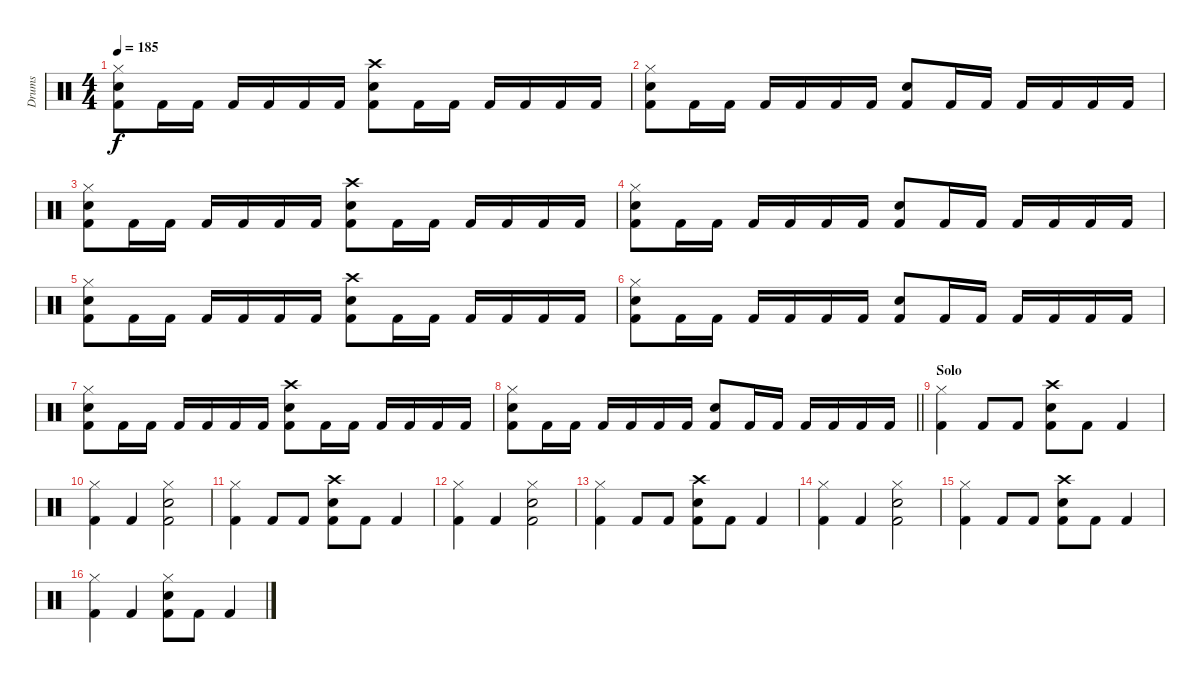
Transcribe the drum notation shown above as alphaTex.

\track ("Drums" "Drums") {instrument percussion}
\staff {score}
\articulation defaults
\ts (4 4)
\tempo 185
\clef neutral
\ks c
("Hi-Hat (closed)" "Electric Snare (hit)" "Kick (hit) 2").8{dy f} "Kick (hit) 2".16 "Kick (hit) 2".16 "Kick (hit) 2".16 "Kick (hit) 2".16 "Kick (hit) 2".16 "Kick (hit) 2".16 ("Crash high (hit)" "Electric Snare (hit)" "Kick (hit) 2").8 "Kick (hit) 2".16 "Kick (hit) 2".16 "Kick (hit) 2".16 "Kick (hit) 2".16 "Kick (hit) 2".16 "Kick (hit) 2".16 |
("Hi-Hat (closed)" "Electric Snare (hit)" "Kick (hit) 2").8 "Kick (hit) 2".16 "Kick (hit) 2".16 "Kick (hit) 2".16 "Kick (hit) 2".16 "Kick (hit) 2".16 "Kick (hit) 2".16 ("Electric Snare (hit)" "Kick (hit) 2").8 "Kick (hit) 2".16 "Kick (hit) 2".16 "Kick (hit) 2".16 "Kick (hit) 2".16 "Kick (hit) 2".16 "Kick (hit) 2".16 |
("Hi-Hat (closed)" "Electric Snare (hit)" "Kick (hit) 2").8 "Kick (hit) 2".16 "Kick (hit) 2".16 "Kick (hit) 2".16 "Kick (hit) 2".16 "Kick (hit) 2".16 "Kick (hit) 2".16 ("Crash high (hit)" "Electric Snare (hit)" "Kick (hit) 2").8 "Kick (hit) 2".16 "Kick (hit) 2".16 "Kick (hit) 2".16 "Kick (hit) 2".16 "Kick (hit) 2".16 "Kick (hit) 2".16 |
("Hi-Hat (closed)" "Electric Snare (hit)" "Kick (hit) 2").8 "Kick (hit) 2".16 "Kick (hit) 2".16 "Kick (hit) 2".16 "Kick (hit) 2".16 "Kick (hit) 2".16 "Kick (hit) 2".16 ("Electric Snare (hit)" "Kick (hit) 2").8 "Kick (hit) 2".16 "Kick (hit) 2".16 "Kick (hit) 2".16 "Kick (hit) 2".16 "Kick (hit) 2".16 "Kick (hit) 2".16 |
("Hi-Hat (closed)" "Electric Snare (hit)" "Kick (hit) 2").8 "Kick (hit) 2".16 "Kick (hit) 2".16 "Kick (hit) 2".16 "Kick (hit) 2".16 "Kick (hit) 2".16 "Kick (hit) 2".16 ("Crash high (hit)" "Electric Snare (hit)" "Kick (hit) 2").8 "Kick (hit) 2".16 "Kick (hit) 2".16 "Kick (hit) 2".16 "Kick (hit) 2".16 "Kick (hit) 2".16 "Kick (hit) 2".16 |
("Hi-Hat (closed)" "Electric Snare (hit)" "Kick (hit) 2").8 "Kick (hit) 2".16 "Kick (hit) 2".16 "Kick (hit) 2".16 "Kick (hit) 2".16 "Kick (hit) 2".16 "Kick (hit) 2".16 ("Electric Snare (hit)" "Kick (hit) 2").8 "Kick (hit) 2".16 "Kick (hit) 2".16 "Kick (hit) 2".16 "Kick (hit) 2".16 "Kick (hit) 2".16 "Kick (hit) 2".16 |
("Hi-Hat (closed)" "Electric Snare (hit)" "Kick (hit) 2").8 "Kick (hit) 2".16 "Kick (hit) 2".16 "Kick (hit) 2".16 "Kick (hit) 2".16 "Kick (hit) 2".16 "Kick (hit) 2".16 ("Crash high (hit)" "Electric Snare (hit)" "Kick (hit) 2").8 "Kick (hit) 2".16 "Kick (hit) 2".16 "Kick (hit) 2".16 "Kick (hit) 2".16 "Kick (hit) 2".16 "Kick (hit) 2".16 |
\barLineRight lightlight
("Hi-Hat (closed)" "Electric Snare (hit)" "Kick (hit) 2").8 "Kick (hit) 2".16 "Kick (hit) 2".16 "Kick (hit) 2".16 "Kick (hit) 2".16 "Kick (hit) 2".16 "Kick (hit) 2".16 ("Electric Snare (hit)" "Kick (hit) 2").8 "Kick (hit) 2".16 "Kick (hit) 2".16 "Kick (hit) 2".16 "Kick (hit) 2".16 "Kick (hit) 2".16 "Kick (hit) 2".16 |
\section ("" "Solo")
("Hi-Hat (closed)" "Kick (hit) 2").4 "Kick (hit) 2".8 "Kick (hit) 2".8 ("Crash high (hit)" "Electric Snare (hit)" "Kick (hit) 2").8 "Kick (hit) 2".8 "Kick (hit) 2".4 |
("Hi-Hat (closed)" "Kick (hit) 2").4 "Kick (hit) 2".4 ("Hi-Hat (closed)" "Electric Snare (hit)" "Kick (hit) 2").2 |
("Hi-Hat (closed)" "Kick (hit) 2").4 "Kick (hit) 2".8 "Kick (hit) 2".8 ("Crash high (hit)" "Electric Snare (hit)" "Kick (hit) 2").8 "Kick (hit) 2".8 "Kick (hit) 2".4 |
("Hi-Hat (closed)" "Kick (hit) 2").4 "Kick (hit) 2".4 ("Hi-Hat (closed)" "Electric Snare (hit)" "Kick (hit) 2").2 |
("Hi-Hat (closed)" "Kick (hit) 2").4 "Kick (hit) 2".8 "Kick (hit) 2".8 ("Crash high (hit)" "Electric Snare (hit)" "Kick (hit) 2").8 "Kick (hit) 2".8 "Kick (hit) 2".4 |
("Hi-Hat (closed)" "Kick (hit) 2").4 "Kick (hit) 2".4 ("Hi-Hat (closed)" "Electric Snare (hit)" "Kick (hit) 2").2 |
("Hi-Hat (closed)" "Kick (hit) 2").4 "Kick (hit) 2".8 "Kick (hit) 2".8 ("Crash high (hit)" "Electric Snare (hit)" "Kick (hit) 2").8 "Kick (hit) 2".8 "Kick (hit) 2".4 |
("Hi-Hat (closed)" "Kick (hit) 2").4 "Kick (hit) 2".4 ("Hi-Hat (closed)" "Electric Snare (hit)" "Kick (hit) 2").8 "Kick (hit) 2".8 "Kick (hit) 2".4
